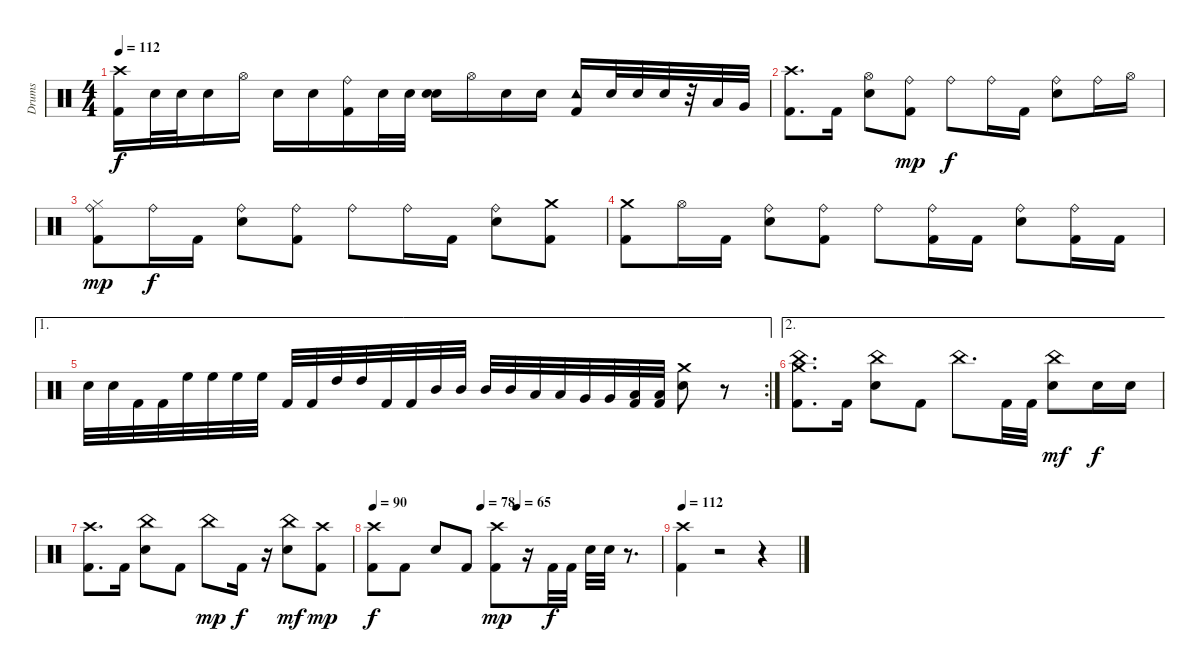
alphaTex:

\track ("Drums" "Drums") {instrument percussion}
\staff {score}
\articulation defaults
\ts (4 4)
\tempo 112
\clef neutral
\ks c
("Crash high (hit)" "Kick (hit) 2").16{dy f} "Electric Snare (hit)".32 "Electric Snare (hit)".32 "Electric Snare (hit)".16 "Hi-Hat (open)".16 "Electric Snare (hit)".16 "Electric Snare (hit)".16 ("Kick (hit) 2" "Ride (bell)").16 "Electric Snare (hit)".32 "Electric Snare (hit)".32 ("Electric Snare (hit)" "Electric Snare (hit)").16 "Hi-Hat (open)".16 "Electric Snare (hit)".16 "Electric Snare (hit)".16 ("Kick (hit) 2" "Tambourine (hit)").16 "Electric Snare (hit)".32 "Electric Snare (hit)".32 "Electric Snare (hit)".32 r.32 "Low Tom (hit)".32 "Very Low Tom (hit)".32 |
("Kick (hit) 2" "Crash high (hit)").8{d} "Kick (hit) 2".16 ("Electric Snare (hit)" "Hi-Hat (open)").8 ("Kick (hit) 2" "Ride (bell)").8{dy mp} "Ride (bell)".8{dy f} "Ride (bell)".16 "Kick (hit) 2".16 ("Electric Snare (hit)" "Ride (bell)").8 "Ride (bell)".16 "Hi-Hat (open)".16 |
("Ride (bell)" "Hi-Hat (closed)" "Kick (hit) 2").8{dy mp} "Ride (bell)".16{dy f} "Kick (hit) 2".16 ("Electric Snare (hit)" "Ride (bell)").8 ("Kick (hit) 2" "Ride (bell)").8 "Ride (bell)".8 "Ride (bell)".16 "Kick (hit) 2".16 ("Ride (bell)" "Electric Snare (hit)").8 ("Kick (hit) 2" "Crash medium (hit)").8 |
("Kick (hit) 2" "Crash medium (hit)").8 "Hi-Hat (open)".16 "Kick (hit) 2".16 ("Electric Snare (hit)" "Ride (bell)").8 ("Ride (bell)" "Kick (hit) 2").8 "Ride (bell)".8 ("Kick (hit) 2" "Ride (bell)").16 "Kick (hit) 2".16 ("Ride (bell)" "Electric Snare (hit)").8 ("Ride (bell)" "Kick (hit) 2").16 "Kick (hit) 2".16 |
\ae 1
\rc 2 "Electric Snare (hit)".32 "Electric Snare (hit)".32 "Kick (hit) 2".32 "Kick (hit) 2".32 "High Floor Tom (hit)".32 "High Floor Tom (hit)".32 "High Floor Tom (hit)".32 "High Floor Tom (hit)".32 "Kick (hit) 2".32 "Kick (hit) 2".32 "High Tom (hit)".32 "High Tom (hit)".32 "Kick (hit) 2".32 "Kick (hit) 2".32 "Mid Tom (hit)".32 "Mid Tom (hit)".32 "Mid Tom (hit)".32 "Mid Tom (hit)".32 "Low Tom (hit)".32 "Low Tom (hit)".32 "Very Low Tom (hit)".32 "Very Low Tom (hit)".32
("Low Floor Tom (hit)" "Kick (hit) 2").32 ("Low Floor Tom (hit)" "Kick (hit) 2").32 ("Electric Snare (hit)" "Crash medium (hit)").8 r.8 |
\ae 2
("Kick (hit) 2" "Crash medium (hit)" "China (hit)").8{d} "Kick (hit) 2".16 ("Electric Snare (hit)" "China (hit)").8 "Kick (hit) 2".8 "China (hit)".8{d} "Kick (hit) 2".32 "Kick (hit) 2".32 ("Electric Snare (hit)" "China (hit)").8{dy mf} "Electric Snare (hit)".16{dy f} "Electric Snare (hit)".16 |
("Crash high (hit)" "Kick (hit) 2").8{d} "Kick (hit) 2".16 ("Electric Snare (hit)" "China (hit)").8 "Kick (hit) 2".8 "China (hit)".8{dy mp} "Kick (hit) 2".16{dy f} r.16 ("Electric Snare (hit)" "China (hit)").8{dy mf} ("Kick (hit) 2" "Crash high (hit)").8{dy mp} |
\tempo 90
\tempo (78 0.375)
\tempo (65 0.5)
("Crash high (hit)" "Kick (hit) 2").8{dy f} "Kick (hit) 2".8 "Electric Snare (hit)".8 "Kick (hit) 2".8 ("Kick (hit) 2" "Crash high (hit)").8{dy mp} r.16 "Kick (hit) 2".32{dy f} "Kick (hit) 2".32 "Electric Snare (hit)".32 "Electric Snare (hit)".32 r.8{d} |
\tempo 112
("Kick (hit) 2" "Crash high (hit)").4 r.2 r.4
